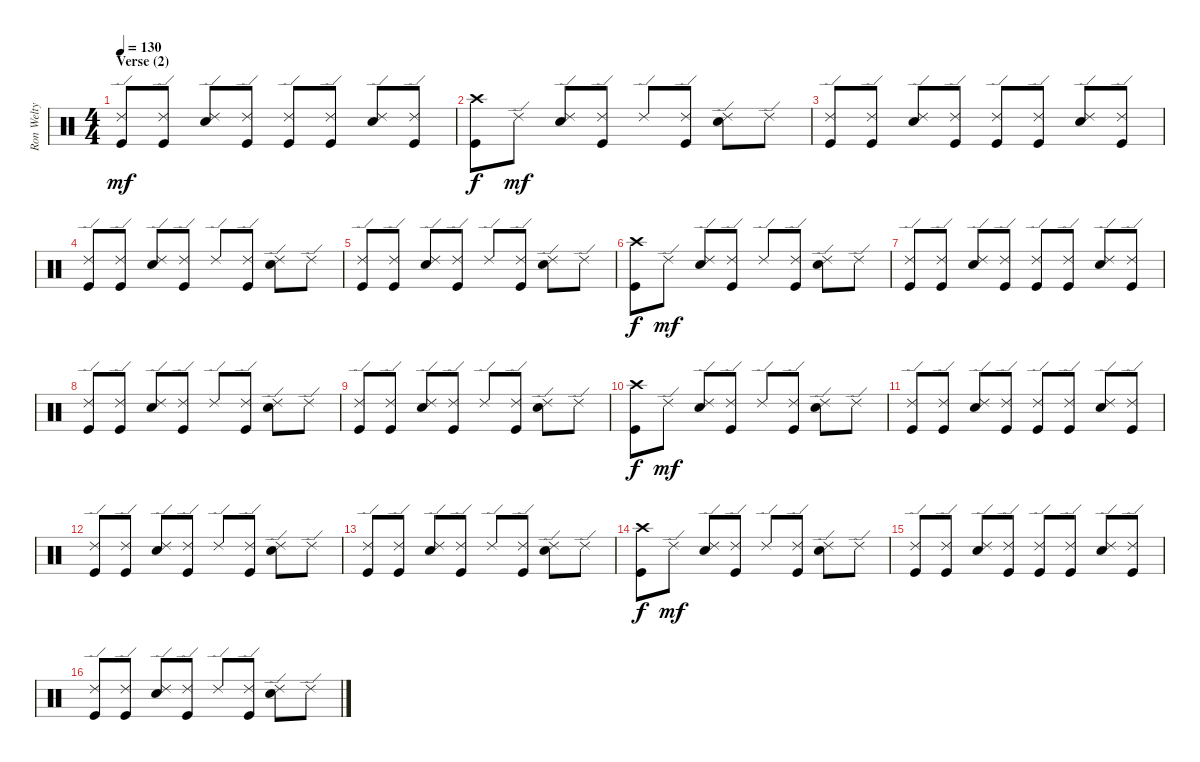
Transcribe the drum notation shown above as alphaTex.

\track ("Ron Welty" "Ron Welty") {instrument percussion}
\staff {score}
\articulation defaults
\ts (4 4)
\section ("" "Verse (2)")
\tempo 130
\clef neutral
\ks c
("Kick (hit)" "Ride (edge) 2").8{dy mf} ("Kick (hit)" "Ride (edge) 2").8 ("Electric Snare (hit)" "Ride (edge) 2").8 ("Kick (hit)" "Ride (edge) 2").8 ("Kick (hit)" "Ride (edge) 2").8 ("Kick (hit)" "Ride (edge) 2").8 ("Electric Snare (hit)" "Ride (edge) 2").8 ("Kick (hit)" "Ride (edge) 2").8 |
("Kick (hit)" "Crash high (hit)").8{dy f} "Ride (edge) 2".8{dy mf} ("Electric Snare (hit)" "Ride (edge) 2").8 ("Kick (hit)" "Ride (edge) 2").8 "Ride (edge) 2".8 ("Kick (hit)" "Ride (edge) 2").8 ("Electric Snare (hit)" "Ride (edge) 2").8 "Ride (edge) 2".8 |
("Kick (hit)" "Ride (edge) 2").8 ("Kick (hit)" "Ride (edge) 2").8 ("Electric Snare (hit)" "Ride (edge) 2").8 ("Kick (hit)" "Ride (edge) 2").8 ("Kick (hit)" "Ride (edge) 2").8 ("Kick (hit)" "Ride (edge) 2").8 ("Electric Snare (hit)" "Ride (edge) 2").8 ("Kick (hit)" "Ride (edge) 2").8 |
("Kick (hit)" "Ride (edge) 2").8 ("Kick (hit)" "Ride (edge) 2").8 ("Electric Snare (hit)" "Ride (edge) 2").8 ("Kick (hit)" "Ride (edge) 2").8 "Ride (edge) 2".8 ("Kick (hit)" "Ride (edge) 2").8 ("Electric Snare (hit)" "Ride (edge) 2").8 "Ride (edge) 2".8 |
("Kick (hit)" "Ride (edge) 2").8 ("Kick (hit)" "Ride (edge) 2").8 ("Electric Snare (hit)" "Ride (edge) 2").8 ("Kick (hit)" "Ride (edge) 2").8 "Ride (edge) 2".8 ("Kick (hit)" "Ride (edge) 2").8 ("Electric Snare (hit)" "Ride (edge) 2").8 "Ride (edge) 2".8 |
("Kick (hit)" "Crash high (hit)").8{dy f} "Ride (edge) 2".8{dy mf} ("Electric Snare (hit)" "Ride (edge) 2").8 ("Kick (hit)" "Ride (edge) 2").8 "Ride (edge) 2".8 ("Kick (hit)" "Ride (edge) 2").8 ("Electric Snare (hit)" "Ride (edge) 2").8 "Ride (edge) 2".8 |
("Kick (hit)" "Ride (edge) 2").8 ("Kick (hit)" "Ride (edge) 2").8 ("Electric Snare (hit)" "Ride (edge) 2").8 ("Kick (hit)" "Ride (edge) 2").8 ("Kick (hit)" "Ride (edge) 2").8 ("Kick (hit)" "Ride (edge) 2").8 ("Electric Snare (hit)" "Ride (edge) 2").8 ("Kick (hit)" "Ride (edge) 2").8 |
("Kick (hit)" "Ride (edge) 2").8 ("Kick (hit)" "Ride (edge) 2").8 ("Electric Snare (hit)" "Ride (edge) 2").8 ("Kick (hit)" "Ride (edge) 2").8 "Ride (edge) 2".8 ("Kick (hit)" "Ride (edge) 2").8 ("Electric Snare (hit)" "Ride (edge) 2").8 "Ride (edge) 2".8 |
("Kick (hit)" "Ride (edge) 2").8 ("Kick (hit)" "Ride (edge) 2").8 ("Electric Snare (hit)" "Ride (edge) 2").8 ("Kick (hit)" "Ride (edge) 2").8 "Ride (edge) 2".8 ("Kick (hit)" "Ride (edge) 2").8 ("Electric Snare (hit)" "Ride (edge) 2").8 "Ride (edge) 2".8 |
("Kick (hit)" "Crash high (hit)").8{dy f} "Ride (edge) 2".8{dy mf} ("Electric Snare (hit)" "Ride (edge) 2").8 ("Kick (hit)" "Ride (edge) 2").8 "Ride (edge) 2".8 ("Kick (hit)" "Ride (edge) 2").8 ("Electric Snare (hit)" "Ride (edge) 2").8 "Ride (edge) 2".8 |
("Kick (hit)" "Ride (edge) 2").8 ("Kick (hit)" "Ride (edge) 2").8 ("Electric Snare (hit)" "Ride (edge) 2").8 ("Kick (hit)" "Ride (edge) 2").8 ("Kick (hit)" "Ride (edge) 2").8 ("Kick (hit)" "Ride (edge) 2").8 ("Electric Snare (hit)" "Ride (edge) 2").8 ("Kick (hit)" "Ride (edge) 2").8 |
("Kick (hit)" "Ride (edge) 2").8 ("Kick (hit)" "Ride (edge) 2").8 ("Electric Snare (hit)" "Ride (edge) 2").8 ("Kick (hit)" "Ride (edge) 2").8 "Ride (edge) 2".8 ("Kick (hit)" "Ride (edge) 2").8 ("Electric Snare (hit)" "Ride (edge) 2").8 "Ride (edge) 2".8 |
("Kick (hit)" "Ride (edge) 2").8 ("Kick (hit)" "Ride (edge) 2").8 ("Electric Snare (hit)" "Ride (edge) 2").8 ("Kick (hit)" "Ride (edge) 2").8 "Ride (edge) 2".8 ("Kick (hit)" "Ride (edge) 2").8 ("Electric Snare (hit)" "Ride (edge) 2").8 "Ride (edge) 2".8 |
("Kick (hit)" "Crash high (hit)").8{dy f} "Ride (edge) 2".8{dy mf} ("Electric Snare (hit)" "Ride (edge) 2").8 ("Kick (hit)" "Ride (edge) 2").8 "Ride (edge) 2".8 ("Kick (hit)" "Ride (edge) 2").8 ("Electric Snare (hit)" "Ride (edge) 2").8 "Ride (edge) 2".8 |
("Kick (hit)" "Ride (edge) 2").8 ("Kick (hit)" "Ride (edge) 2").8 ("Electric Snare (hit)" "Ride (edge) 2").8 ("Kick (hit)" "Ride (edge) 2").8 ("Kick (hit)" "Ride (edge) 2").8 ("Kick (hit)" "Ride (edge) 2").8 ("Electric Snare (hit)" "Ride (edge) 2").8 ("Kick (hit)" "Ride (edge) 2").8 |
("Kick (hit)" "Ride (edge) 2").8 ("Kick (hit)" "Ride (edge) 2").8 ("Electric Snare (hit)" "Ride (edge) 2").8 ("Kick (hit)" "Ride (edge) 2").8 "Ride (edge) 2".8 ("Kick (hit)" "Ride (edge) 2").8 ("Electric Snare (hit)" "Ride (edge) 2").8 "Ride (edge) 2".8
